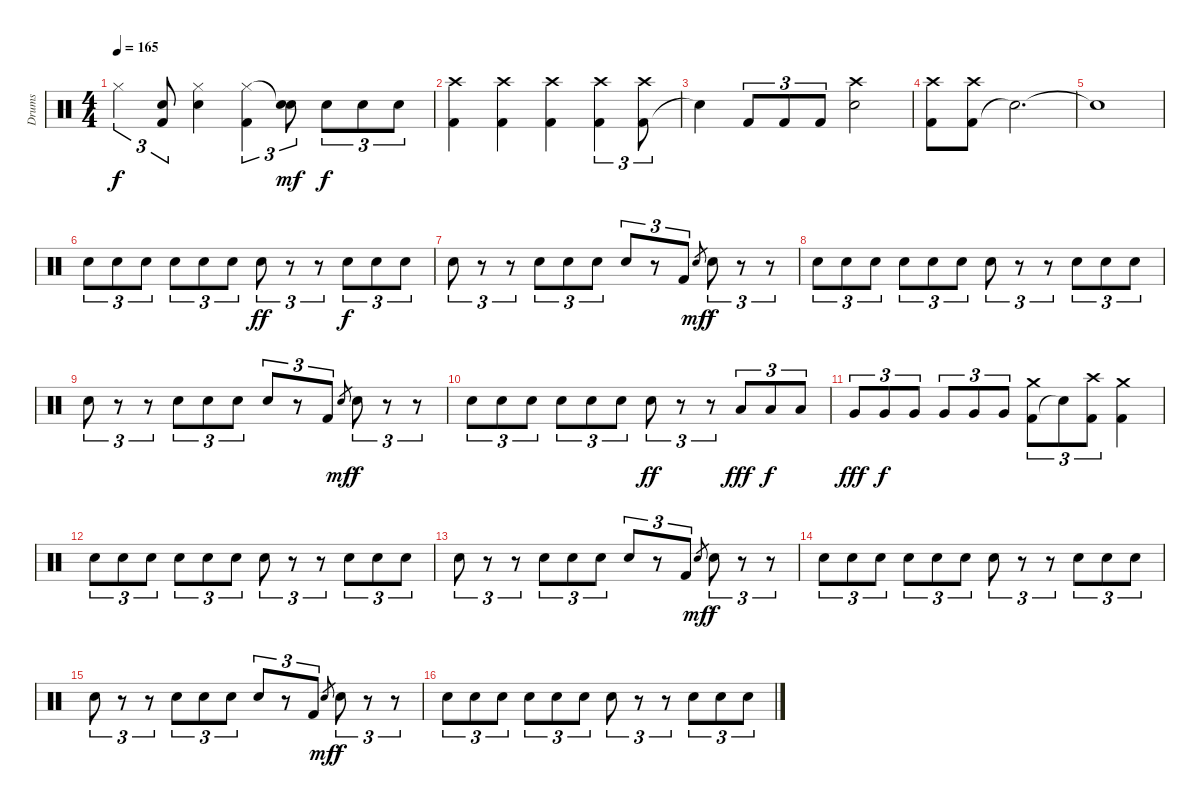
\track ("Drums" "Drums") {instrument percussion}
\staff {score}
\articulation defaults
\ts (4 4)
\tempo 165
\clef neutral
\ks c "Hi-Hat (closed)".4{tu (3 2) dy f}
("Kick (hit) 2" "Snare (hit)"{t}).8{tu (3 2)} ("Snare (hit) 2" "Hi-Hat (closed)").4 ("Kick (hit) 2" "Hi-Hat (closed)").4{tu (3 2)} ("Snare (hit) 2" "Snare (hit)"{t}).8{tu (3 2) dy mf} "Snare (hit) 2".8{tu (3 2) dy f} "Snare (hit) 2".8{tu (3 2)} "Snare (hit) 2".8{tu (3 2)} |
("Kick (hit) 2" "Crash high (hit)").4 ("Kick (hit) 2" "Crash high (hit)").4 ("Kick (hit) 2" "Crash high (hit)").4 ("Kick (hit) 2" "Crash high (hit)").4{tu (3 2)} ("Kick (hit) 2" "Crash high (hit)").8{tu (3 2)} |
"Snare (hit)"{t}.4 "Kick (hit) 2".8{tu (3 2)} "Kick (hit) 2".8{tu (3 2)} "Kick (hit) 2".8{tu (3 2)} ("Snare (hit) 2" "Crash high (hit)").2 |
("Kick (hit) 2" "Crash high (hit)").8 ("Kick (hit) 2" "Crash high (hit)").8 "Snare (hit)"{t}.2{d} |
"Snare (hit)"{t}.1 |
"Snare (hit) 2".8{tu (3 2)} "Snare (hit) 2".8{tu (3 2)} "Snare (hit) 2".8{tu (3 2)} "Snare (hit) 2".8{tu (3 2)} "Snare (hit) 2".8{tu (3 2)} "Snare (hit) 2".8{tu (3 2)} "Snare (hit) 2".8{tu (3 2) dy ff} r.8{tu (3 2)} r.8{tu (3 2)} "Snare (hit) 2".8{tu (3 2) dy f} "Snare (hit) 2".8{tu (3 2)} "Snare (hit) 2".8{tu (3 2)} |
"Snare (hit) 2".8{tu (3 2)} r.8{tu (3 2)} r.8{tu (3 2)} "Snare (hit) 2".8{tu (3 2)} "Snare (hit) 2".8{tu (3 2)} "Snare (hit) 2".8{tu (3 2)} "Snare (hit) 2".8{tu (3 2)} r.8{tu (3 2)} "Kick (hit) 2".8{tu (3 2)} "Snare (hit) 2".8{gr dy mf} "Snare (hit) 2".8{tu (3 2) dy f} r.8{tu (3 2)} r.8{tu (3 2)} |
"Snare (hit) 2".8{tu (3 2)} "Snare (hit) 2".8{tu (3 2)} "Snare (hit) 2".8{tu (3 2)} "Snare (hit) 2".8{tu (3 2)} "Snare (hit) 2".8{tu (3 2)} "Snare (hit) 2".8{tu (3 2)} "Snare (hit) 2".8{tu (3 2)} r.8{tu (3 2)} r.8{tu (3 2)} "Snare (hit) 2".8{tu (3 2)} "Snare (hit) 2".8{tu (3 2)} "Snare (hit) 2".8{tu (3 2)} |
"Snare (hit) 2".8{tu (3 2)} r.8{tu (3 2)} r.8{tu (3 2)} "Snare (hit) 2".8{tu (3 2)} "Snare (hit) 2".8{tu (3 2)} "Snare (hit) 2".8{tu (3 2)} "Snare (hit) 2".8{tu (3 2)} r.8{tu (3 2)} "Kick (hit) 2".8{tu (3 2)} "Snare (hit) 2".8{gr dy mf} "Snare (hit) 2".8{tu (3 2) dy f} r.8{tu (3 2)} r.8{tu (3 2)} |
"Snare (hit) 2".8{tu (3 2)} "Snare (hit) 2".8{tu (3 2)} "Snare (hit) 2".8{tu (3 2)} "Snare (hit) 2".8{tu (3 2)} "Snare (hit) 2".8{tu (3 2)} "Snare (hit) 2".8{tu (3 2)} "Snare (hit) 2".8{tu (3 2) dy ff} r.8{tu (3 2)} r.8{tu (3 2)} "Low Tom (hit)".8{tu (3 2) dy fff} "Low Tom (hit)".8{tu (3 2) dy f} "Low Tom (hit)".8{tu (3 2)} |
"Very Low Tom (hit)".8{tu (3 2) dy fff} "Very Low Tom (hit)".8{tu (3 2) dy f} "Very Low Tom (hit)".8{tu (3 2)} "Very Low Tom (hit)".8{tu (3 2)} "Very Low Tom (hit)".8{tu (3 2)} "Very Low Tom (hit)".8{tu (3 2)} ("Kick (hit) 2" "Crash medium (hit)").8{tu (3 2)} "Snare (hit)"{t}.8{tu (3 2)} ("Kick (hit) 2" "Crash high (hit)").8{tu (3 2)} ("Kick (hit) 2" "Crash medium (hit)").4 |
"Snare (hit) 2".8{tu (3 2)} "Snare (hit) 2".8{tu (3 2)} "Snare (hit) 2".8{tu (3 2)} "Snare (hit) 2".8{tu (3 2)} "Snare (hit) 2".8{tu (3 2)} "Snare (hit) 2".8{tu (3 2)} "Snare (hit) 2".8{tu (3 2)} r.8{tu (3 2)} r.8{tu (3 2)} "Snare (hit) 2".8{tu (3 2)} "Snare (hit) 2".8{tu (3 2)} "Snare (hit) 2".8{tu (3 2)} |
"Snare (hit) 2".8{tu (3 2)} r.8{tu (3 2)} r.8{tu (3 2)} "Snare (hit) 2".8{tu (3 2)} "Snare (hit) 2".8{tu (3 2)} "Snare (hit) 2".8{tu (3 2)} "Snare (hit) 2".8{tu (3 2)} r.8{tu (3 2)} "Kick (hit) 2".8{tu (3 2)} "Snare (hit) 2".8{gr dy mf} "Snare (hit) 2".8{tu (3 2) dy f} r.8{tu (3 2)} r.8{tu (3 2)} |
"Snare (hit) 2".8{tu (3 2)} "Snare (hit) 2".8{tu (3 2)} "Snare (hit) 2".8{tu (3 2)} "Snare (hit) 2".8{tu (3 2)} "Snare (hit) 2".8{tu (3 2)} "Snare (hit) 2".8{tu (3 2)} "Snare (hit) 2".8{tu (3 2)} r.8{tu (3 2)} r.8{tu (3 2)} "Snare (hit) 2".8{tu (3 2)} "Snare (hit) 2".8{tu (3 2)} "Snare (hit) 2".8{tu (3 2)} |
"Snare (hit) 2".8{tu (3 2)} r.8{tu (3 2)} r.8{tu (3 2)} "Snare (hit) 2".8{tu (3 2)} "Snare (hit) 2".8{tu (3 2)} "Snare (hit) 2".8{tu (3 2)} "Snare (hit) 2".8{tu (3 2)} r.8{tu (3 2)} "Kick (hit) 2".8{tu (3 2)} "Snare (hit) 2".8{gr dy mf} "Snare (hit) 2".8{tu (3 2) dy f} r.8{tu (3 2)} r.8{tu (3 2)} |
"Snare (hit) 2".8{tu (3 2)} "Snare (hit) 2".8{tu (3 2)} "Snare (hit) 2".8{tu (3 2)} "Snare (hit) 2".8{tu (3 2)} "Snare (hit) 2".8{tu (3 2)} "Snare (hit) 2".8{tu (3 2)} "Snare (hit) 2".8{tu (3 2)} r.8{tu (3 2)} r.8{tu (3 2)} "Snare (hit) 2".8{tu (3 2)} "Snare (hit) 2".8{tu (3 2)} "Snare (hit) 2".8{tu (3 2)}
